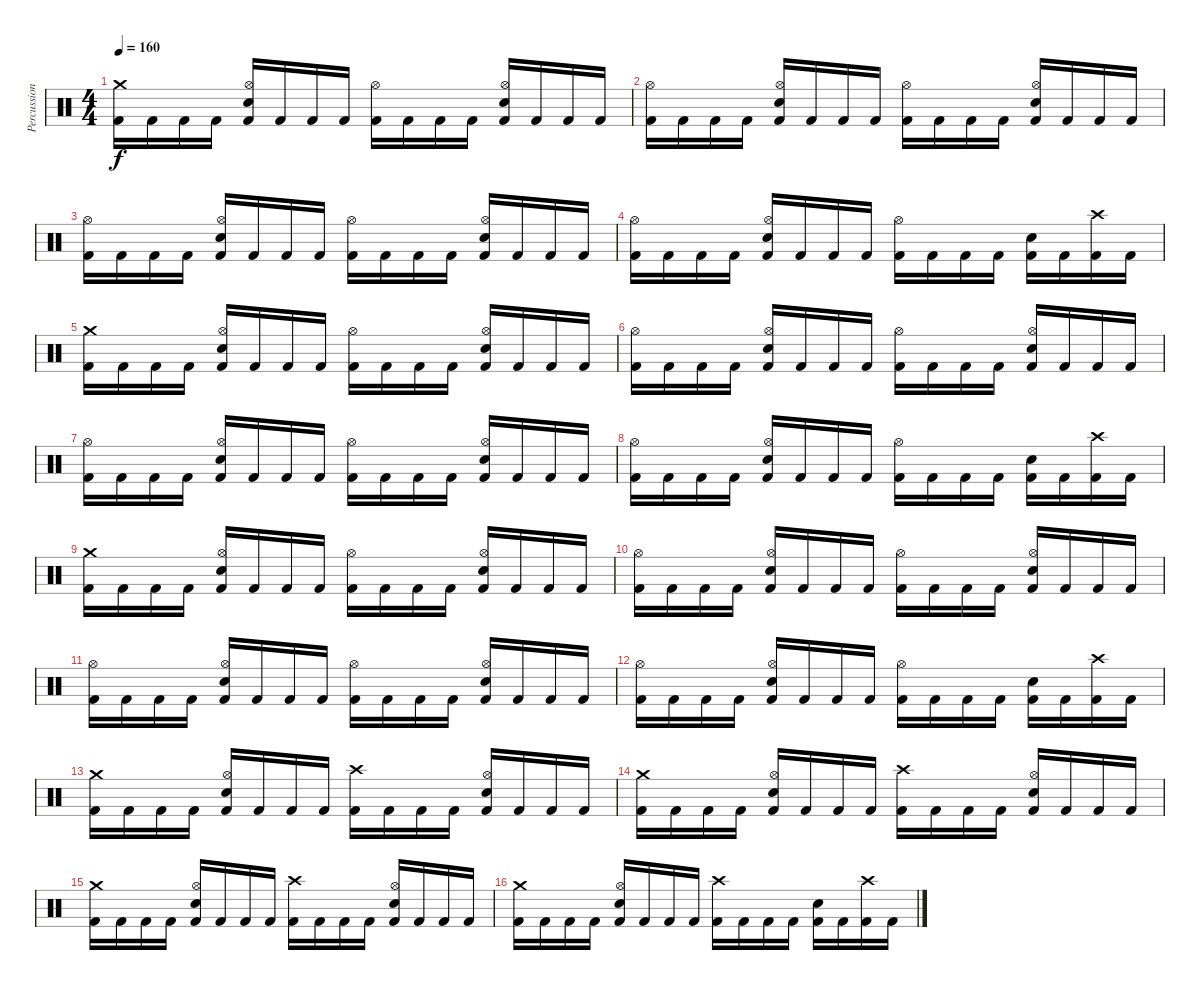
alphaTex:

\track ("Percussions" "Percussion") {instrument percussion}
\staff {score}
\articulation defaults
\ts (4 4)
\tempo 160
\clef neutral
\ks c
("Crash medium (hit)" "Kick (hit) 2").16{dy f} "Kick (hit) 2".16 "Kick (hit) 2".16 "Kick (hit) 2".16 ("Hi-Hat (open)" "Electric Snare (hit)" "Kick (hit) 2").16 "Kick (hit) 2".16 "Kick (hit) 2".16 "Kick (hit) 2".16 ("Hi-Hat (open)" "Kick (hit) 2").16 "Kick (hit) 2".16 "Kick (hit) 2".16 "Kick (hit) 2".16 ("Hi-Hat (open)" "Electric Snare (hit)" "Kick (hit) 2").16 "Kick (hit) 2".16 "Kick (hit) 2".16 "Kick (hit) 2".16 |
("Hi-Hat (open)" "Kick (hit) 2").16 "Kick (hit) 2".16 "Kick (hit) 2".16 "Kick (hit) 2".16 ("Hi-Hat (open)" "Electric Snare (hit)" "Kick (hit) 2").16 "Kick (hit) 2".16 "Kick (hit) 2".16 "Kick (hit) 2".16 ("Hi-Hat (open)" "Kick (hit) 2").16 "Kick (hit) 2".16 "Kick (hit) 2".16 "Kick (hit) 2".16 ("Hi-Hat (open)" "Electric Snare (hit)" "Kick (hit) 2").16 "Kick (hit) 2".16 "Kick (hit) 2".16 "Kick (hit) 2".16 |
("Hi-Hat (open)" "Kick (hit) 2").16 "Kick (hit) 2".16 "Kick (hit) 2".16 "Kick (hit) 2".16 ("Hi-Hat (open)" "Electric Snare (hit)" "Kick (hit) 2").16 "Kick (hit) 2".16 "Kick (hit) 2".16 "Kick (hit) 2".16 ("Hi-Hat (open)" "Kick (hit) 2").16 "Kick (hit) 2".16 "Kick (hit) 2".16 "Kick (hit) 2".16 ("Hi-Hat (open)" "Electric Snare (hit)" "Kick (hit) 2").16 "Kick (hit) 2".16 "Kick (hit) 2".16 "Kick (hit) 2".16 |
("Hi-Hat (open)" "Kick (hit) 2").16 "Kick (hit) 2".16 "Kick (hit) 2".16 "Kick (hit) 2".16 ("Hi-Hat (open)" "Electric Snare (hit)" "Kick (hit) 2").16 "Kick (hit) 2".16 "Kick (hit) 2".16 "Kick (hit) 2".16 ("Hi-Hat (open)" "Kick (hit) 2").16 "Kick (hit) 2".16 "Kick (hit) 2".16 "Kick (hit) 2".16 ("Electric Snare (hit)" "Kick (hit) 2").16 "Kick (hit) 2".16 ("Crash high (hit)" "Kick (hit) 2").16 "Kick (hit) 2".16 |
("Crash medium (hit)" "Kick (hit) 2").16 "Kick (hit) 2".16 "Kick (hit) 2".16 "Kick (hit) 2".16 ("Hi-Hat (open)" "Electric Snare (hit)" "Kick (hit) 2").16 "Kick (hit) 2".16 "Kick (hit) 2".16 "Kick (hit) 2".16 ("Hi-Hat (open)" "Kick (hit) 2").16 "Kick (hit) 2".16 "Kick (hit) 2".16 "Kick (hit) 2".16 ("Hi-Hat (open)" "Electric Snare (hit)" "Kick (hit) 2").16 "Kick (hit) 2".16 "Kick (hit) 2".16 "Kick (hit) 2".16 |
("Hi-Hat (open)" "Kick (hit) 2").16 "Kick (hit) 2".16 "Kick (hit) 2".16 "Kick (hit) 2".16 ("Hi-Hat (open)" "Electric Snare (hit)" "Kick (hit) 2").16 "Kick (hit) 2".16 "Kick (hit) 2".16 "Kick (hit) 2".16 ("Hi-Hat (open)" "Kick (hit) 2").16 "Kick (hit) 2".16 "Kick (hit) 2".16 "Kick (hit) 2".16 ("Hi-Hat (open)" "Electric Snare (hit)" "Kick (hit) 2").16 "Kick (hit) 2".16 "Kick (hit) 2".16 "Kick (hit) 2".16 |
("Hi-Hat (open)" "Kick (hit) 2").16 "Kick (hit) 2".16 "Kick (hit) 2".16 "Kick (hit) 2".16 ("Hi-Hat (open)" "Electric Snare (hit)" "Kick (hit) 2").16 "Kick (hit) 2".16 "Kick (hit) 2".16 "Kick (hit) 2".16 ("Hi-Hat (open)" "Kick (hit) 2").16 "Kick (hit) 2".16 "Kick (hit) 2".16 "Kick (hit) 2".16 ("Hi-Hat (open)" "Electric Snare (hit)" "Kick (hit) 2").16 "Kick (hit) 2".16 "Kick (hit) 2".16 "Kick (hit) 2".16 |
("Hi-Hat (open)" "Kick (hit) 2").16 "Kick (hit) 2".16 "Kick (hit) 2".16 "Kick (hit) 2".16 ("Hi-Hat (open)" "Electric Snare (hit)" "Kick (hit) 2").16 "Kick (hit) 2".16 "Kick (hit) 2".16 "Kick (hit) 2".16 ("Hi-Hat (open)" "Kick (hit) 2").16 "Kick (hit) 2".16 "Kick (hit) 2".16 "Kick (hit) 2".16 ("Electric Snare (hit)" "Kick (hit) 2").16 "Kick (hit) 2".16 ("Crash high (hit)" "Kick (hit) 2").16 "Kick (hit) 2".16 |
("Crash medium (hit)" "Kick (hit) 2").16 "Kick (hit) 2".16 "Kick (hit) 2".16 "Kick (hit) 2".16 ("Hi-Hat (open)" "Electric Snare (hit)" "Kick (hit) 2").16 "Kick (hit) 2".16 "Kick (hit) 2".16 "Kick (hit) 2".16 ("Hi-Hat (open)" "Kick (hit) 2").16 "Kick (hit) 2".16 "Kick (hit) 2".16 "Kick (hit) 2".16 ("Hi-Hat (open)" "Electric Snare (hit)" "Kick (hit) 2").16 "Kick (hit) 2".16 "Kick (hit) 2".16 "Kick (hit) 2".16 |
("Hi-Hat (open)" "Kick (hit) 2").16 "Kick (hit) 2".16 "Kick (hit) 2".16 "Kick (hit) 2".16 ("Hi-Hat (open)" "Electric Snare (hit)" "Kick (hit) 2").16 "Kick (hit) 2".16 "Kick (hit) 2".16 "Kick (hit) 2".16 ("Hi-Hat (open)" "Kick (hit) 2").16 "Kick (hit) 2".16 "Kick (hit) 2".16 "Kick (hit) 2".16 ("Hi-Hat (open)" "Electric Snare (hit)" "Kick (hit) 2").16 "Kick (hit) 2".16 "Kick (hit) 2".16 "Kick (hit) 2".16 |
("Hi-Hat (open)" "Kick (hit) 2").16 "Kick (hit) 2".16 "Kick (hit) 2".16 "Kick (hit) 2".16 ("Hi-Hat (open)" "Electric Snare (hit)" "Kick (hit) 2").16 "Kick (hit) 2".16 "Kick (hit) 2".16 "Kick (hit) 2".16 ("Hi-Hat (open)" "Kick (hit) 2").16 "Kick (hit) 2".16 "Kick (hit) 2".16 "Kick (hit) 2".16 ("Hi-Hat (open)" "Electric Snare (hit)" "Kick (hit) 2").16 "Kick (hit) 2".16 "Kick (hit) 2".16 "Kick (hit) 2".16 |
("Hi-Hat (open)" "Kick (hit) 2").16 "Kick (hit) 2".16 "Kick (hit) 2".16 "Kick (hit) 2".16 ("Hi-Hat (open)" "Electric Snare (hit)" "Kick (hit) 2").16 "Kick (hit) 2".16 "Kick (hit) 2".16 "Kick (hit) 2".16 ("Hi-Hat (open)" "Kick (hit) 2").16 "Kick (hit) 2".16 "Kick (hit) 2".16 "Kick (hit) 2".16 ("Electric Snare (hit)" "Kick (hit) 2").16 "Kick (hit) 2".16 ("Crash high (hit)" "Kick (hit) 2").16 "Kick (hit) 2".16 |
("Crash medium (hit)" "Kick (hit) 2").16 "Kick (hit) 2".16 "Kick (hit) 2".16 "Kick (hit) 2".16 ("Hi-Hat (open)" "Electric Snare (hit)" "Kick (hit) 2").16 "Kick (hit) 2".16 "Kick (hit) 2".16 "Kick (hit) 2".16 ("Crash high (hit)" "Kick (hit) 2").16 "Kick (hit) 2".16 "Kick (hit) 2".16 "Kick (hit) 2".16 ("Hi-Hat (open)" "Electric Snare (hit)" "Kick (hit) 2").16 "Kick (hit) 2".16 "Kick (hit) 2".16 "Kick (hit) 2".16 |
("Crash medium (hit)" "Kick (hit) 2").16 "Kick (hit) 2".16 "Kick (hit) 2".16 "Kick (hit) 2".16 ("Hi-Hat (open)" "Electric Snare (hit)" "Kick (hit) 2").16 "Kick (hit) 2".16 "Kick (hit) 2".16 "Kick (hit) 2".16 ("Crash high (hit)" "Kick (hit) 2").16 "Kick (hit) 2".16 "Kick (hit) 2".16 "Kick (hit) 2".16 ("Hi-Hat (open)" "Electric Snare (hit)" "Kick (hit) 2").16 "Kick (hit) 2".16 "Kick (hit) 2".16 "Kick (hit) 2".16 |
("Crash medium (hit)" "Kick (hit) 2").16 "Kick (hit) 2".16 "Kick (hit) 2".16 "Kick (hit) 2".16 ("Hi-Hat (open)" "Electric Snare (hit)" "Kick (hit) 2").16 "Kick (hit) 2".16 "Kick (hit) 2".16 "Kick (hit) 2".16 ("Crash high (hit)" "Kick (hit) 2").16 "Kick (hit) 2".16 "Kick (hit) 2".16 "Kick (hit) 2".16 ("Hi-Hat (open)" "Electric Snare (hit)" "Kick (hit) 2").16 "Kick (hit) 2".16 "Kick (hit) 2".16 "Kick (hit) 2".16 |
("Crash medium (hit)" "Kick (hit) 2").16 "Kick (hit) 2".16 "Kick (hit) 2".16 "Kick (hit) 2".16 ("Hi-Hat (open)" "Electric Snare (hit)" "Kick (hit) 2").16 "Kick (hit) 2".16 "Kick (hit) 2".16 "Kick (hit) 2".16 ("Crash high (hit)" "Kick (hit) 2").16 "Kick (hit) 2".16 "Kick (hit) 2".16 "Kick (hit) 2".16 ("Electric Snare (hit)" "Kick (hit) 2").16 "Kick (hit) 2".16 ("Crash high (hit)" "Kick (hit) 2").16 "Kick (hit) 2".16
